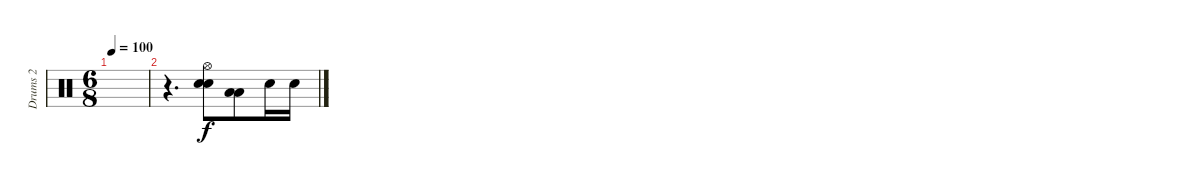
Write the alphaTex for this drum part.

\track ("Drums 2" "Drums 2") {instrument percussion}
\staff {score}
\articulation defaults
\ts (6 8)
\tempo 100
\clef neutral
\ks c
|
r.4{d} ("Snare (hit) 2" "Snare (hit) 2" "Hi-Hat (open)").8{bu 480} ("Low Tom (hit)" "Low Tom (hit)").8{bu 480} "Snare (hit) 2".16 "Snare (hit) 2".16
